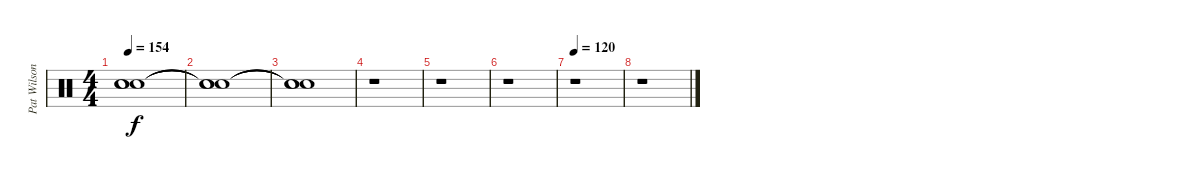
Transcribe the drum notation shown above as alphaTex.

\track ("Pat Wilson" "Pat Wilson") {instrument percussion}
\staff {score}
\articulation defaults
\ts (4 4)
\tempo 154
\clef neutral
\ks c
("Snare (hit)"{t} "Snare (hit)"{t} "Snare (hit)"{t}).1{dy f} |
("Snare (hit)"{t} "Snare (hit)"{t} "Snare (hit)"{t}).1 |
("Snare (hit)"{t} "Snare (hit)"{t} "Snare (hit)"{t}).1 |
r.1 |
r.1 |
r.1 |
\tempo 120
r.1 |
r.1
